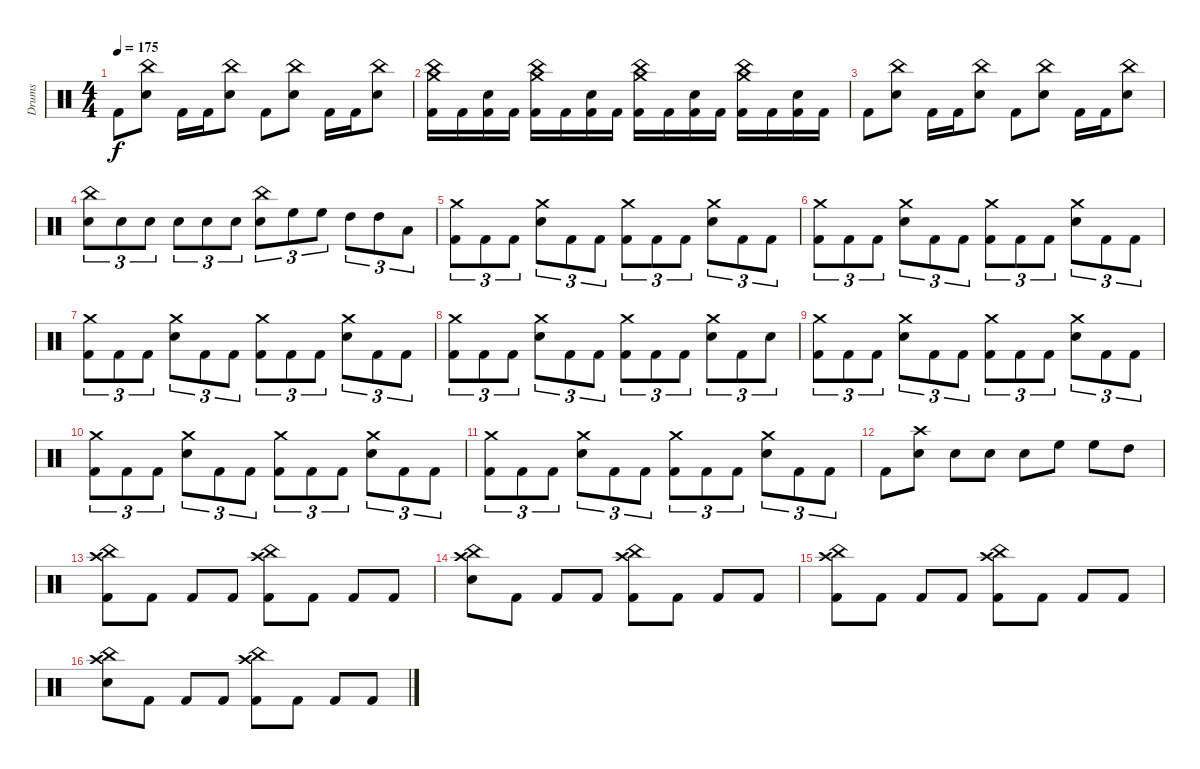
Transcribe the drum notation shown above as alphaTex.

\track ("Drums" "Drums") {instrument percussion}
\staff {score}
\articulation defaults
\ts (4 4)
\tempo 175
\clef neutral
\ks c "Kick (hit) 2".8{dy f}
("China (hit)" "Electric Snare (hit)").8 "Kick (hit) 2".16 "Kick (hit) 2".16 ("China (hit)" "Electric Snare (hit)").8 "Kick (hit) 2".8 ("China (hit)" "Electric Snare (hit)").8 "Kick (hit) 2".16 "Kick (hit) 2".16 ("China (hit)" "Electric Snare (hit)").8 |
("Crash medium (hit)" "China (hit)" "Kick (hit) 2").16 "Kick (hit) 2".16 ("Electric Snare (hit)" "Kick (hit) 2").16 "Kick (hit) 2".16 ("Crash medium (hit)" "China (hit)" "Kick (hit) 2").16 "Kick (hit) 2".16 ("Electric Snare (hit)" "Kick (hit) 2").16 "Kick (hit) 2".16 ("Crash medium (hit)" "China (hit)" "Kick (hit) 2").16 "Kick (hit) 2".16 ("Electric Snare (hit)" "Kick (hit) 2").16 "Kick (hit) 2".16 ("Crash medium (hit)" "China (hit)" "Kick (hit) 2").16 "Kick (hit) 2".16 ("Electric Snare (hit)" "Kick (hit) 2").16 "Kick (hit) 2".16 |
"Kick (hit) 2".8 ("China (hit)" "Electric Snare (hit)").8 "Kick (hit) 2".16 "Kick (hit) 2".16 ("China (hit)" "Electric Snare (hit)").8 "Kick (hit) 2".8 ("China (hit)" "Electric Snare (hit)").8 "Kick (hit) 2".16 "Kick (hit) 2".16 ("China (hit)" "Electric Snare (hit)").8 |
("China (hit)" "Electric Snare (hit)").8{tu (3 2)} "Electric Snare (hit)".8{tu (3 2)} "Electric Snare (hit)".8{tu (3 2)} "Electric Snare (hit)".8{tu (3 2)} "Electric Snare (hit)".8{tu (3 2)} "Electric Snare (hit)".8{tu (3 2)} ("China (hit)" "Electric Snare (hit)").8{tu (3 2)} "High Floor Tom (hit)".8{tu (3 2)} "High Floor Tom (hit)".8{tu (3 2)} "High Tom (hit)".8{tu (3 2)} "High Tom (hit)".8{tu (3 2)} "Low Floor Tom (hit)".8{tu (3 2)} |
("Crash medium (hit)" "Kick (hit) 2").8{tu (3 2)} "Kick (hit) 2".8{tu (3 2)} "Kick (hit) 2".8{tu (3 2)} ("Crash medium (hit)" "Electric Snare (hit)").8{tu (3 2)} "Kick (hit) 2".8{tu (3 2)} "Kick (hit) 2".8{tu (3 2)} ("Crash medium (hit)" "Kick (hit) 2").8{tu (3 2)} "Kick (hit) 2".8{tu (3 2)} "Kick (hit) 2".8{tu (3 2)} ("Crash medium (hit)" "Electric Snare (hit)").8{tu (3 2)} "Kick (hit) 2".8{tu (3 2)} "Kick (hit) 2".8{tu (3 2)} |
("Crash medium (hit)" "Kick (hit) 2").8{tu (3 2)} "Kick (hit) 2".8{tu (3 2)} "Kick (hit) 2".8{tu (3 2)} ("Crash medium (hit)" "Electric Snare (hit)").8{tu (3 2)} "Kick (hit) 2".8{tu (3 2)} "Kick (hit) 2".8{tu (3 2)} ("Crash medium (hit)" "Kick (hit) 2").8{tu (3 2)} "Kick (hit) 2".8{tu (3 2)} "Kick (hit) 2".8{tu (3 2)} ("Crash medium (hit)" "Electric Snare (hit)").8{tu (3 2)} "Kick (hit) 2".8{tu (3 2)} "Kick (hit) 2".8{tu (3 2)} |
("Crash medium (hit)" "Kick (hit) 2").8{tu (3 2)} "Kick (hit) 2".8{tu (3 2)} "Kick (hit) 2".8{tu (3 2)} ("Crash medium (hit)" "Electric Snare (hit)").8{tu (3 2)} "Kick (hit) 2".8{tu (3 2)} "Kick (hit) 2".8{tu (3 2)} ("Crash medium (hit)" "Kick (hit) 2").8{tu (3 2)} "Kick (hit) 2".8{tu (3 2)} "Kick (hit) 2".8{tu (3 2)} ("Crash medium (hit)" "Electric Snare (hit)").8{tu (3 2)} "Kick (hit) 2".8{tu (3 2)} "Kick (hit) 2".8{tu (3 2)} |
("Crash medium (hit)" "Kick (hit) 2").8{tu (3 2)} "Kick (hit) 2".8{tu (3 2)} "Kick (hit) 2".8{tu (3 2)} ("Crash medium (hit)" "Electric Snare (hit)").8{tu (3 2)} "Kick (hit) 2".8{tu (3 2)} "Kick (hit) 2".8{tu (3 2)} ("Crash medium (hit)" "Kick (hit) 2").8{tu (3 2)} "Kick (hit) 2".8{tu (3 2)} "Kick (hit) 2".8{tu (3 2)} ("Crash medium (hit)" "Electric Snare (hit)").8{tu (3 2)} "Kick (hit) 2".8{tu (3 2)} "Electric Snare (hit)".8{tu (3 2)} |
("Crash medium (hit)" "Kick (hit) 2").8{tu (3 2)} "Kick (hit) 2".8{tu (3 2)} "Kick (hit) 2".8{tu (3 2)} ("Crash medium (hit)" "Electric Snare (hit)").8{tu (3 2)} "Kick (hit) 2".8{tu (3 2)} "Kick (hit) 2".8{tu (3 2)} ("Crash medium (hit)" "Kick (hit) 2").8{tu (3 2)} "Kick (hit) 2".8{tu (3 2)} "Kick (hit) 2".8{tu (3 2)} ("Crash medium (hit)" "Electric Snare (hit)").8{tu (3 2)} "Kick (hit) 2".8{tu (3 2)} "Kick (hit) 2".8{tu (3 2)} |
("Crash medium (hit)" "Kick (hit) 2").8{tu (3 2)} "Kick (hit) 2".8{tu (3 2)} "Kick (hit) 2".8{tu (3 2)} ("Crash medium (hit)" "Electric Snare (hit)").8{tu (3 2)} "Kick (hit) 2".8{tu (3 2)} "Kick (hit) 2".8{tu (3 2)} ("Crash medium (hit)" "Kick (hit) 2").8{tu (3 2)} "Kick (hit) 2".8{tu (3 2)} "Kick (hit) 2".8{tu (3 2)} ("Crash medium (hit)" "Electric Snare (hit)").8{tu (3 2)} "Kick (hit) 2".8{tu (3 2)} "Kick (hit) 2".8{tu (3 2)} |
("Crash medium (hit)" "Kick (hit) 2").8{tu (3 2)} "Kick (hit) 2".8{tu (3 2)} "Kick (hit) 2".8{tu (3 2)} ("Crash medium (hit)" "Electric Snare (hit)").8{tu (3 2)} "Kick (hit) 2".8{tu (3 2)} "Kick (hit) 2".8{tu (3 2)} ("Crash medium (hit)" "Kick (hit) 2").8{tu (3 2)} "Kick (hit) 2".8{tu (3 2)} "Kick (hit) 2".8{tu (3 2)} ("Crash medium (hit)" "Electric Snare (hit)").8{tu (3 2)} "Kick (hit) 2".8{tu (3 2)} "Kick (hit) 2".8{tu (3 2)} |
"Kick (hit) 2".8 ("Crash high (hit)" "Electric Snare (hit)").8 "Electric Snare (hit)".8 "Electric Snare (hit)".8 "Electric Snare (hit)".8 "High Floor Tom (hit)".8 "High Floor Tom (hit)".8 "High Tom (hit)".8 |
("Crash high (hit)" "China (hit)" "Kick (hit) 2").8 "Kick (hit) 2".8 "Kick (hit) 2".8 "Kick (hit) 2".8 ("Crash high (hit)" "China (hit)" "Kick (hit) 2").8 "Kick (hit) 2".8 "Kick (hit) 2".8 "Kick (hit) 2".8 |
("Crash high (hit)" "China (hit)" "Electric Snare (hit)").8 "Kick (hit) 2".8 "Kick (hit) 2".8 "Kick (hit) 2".8 ("Crash high (hit)" "China (hit)" "Kick (hit) 2").8 "Kick (hit) 2".8 "Kick (hit) 2".8 "Kick (hit) 2".8 |
("Crash high (hit)" "China (hit)" "Kick (hit) 2").8 "Kick (hit) 2".8 "Kick (hit) 2".8 "Kick (hit) 2".8 ("Crash high (hit)" "China (hit)" "Kick (hit) 2").8 "Kick (hit) 2".8 "Kick (hit) 2".8 "Kick (hit) 2".8 |
("Crash high (hit)" "China (hit)" "Electric Snare (hit)").8 "Kick (hit) 2".8 "Kick (hit) 2".8 "Kick (hit) 2".8 ("Crash high (hit)" "China (hit)" "Kick (hit) 2").8 "Kick (hit) 2".8 "Kick (hit) 2".8 "Kick (hit) 2".8
